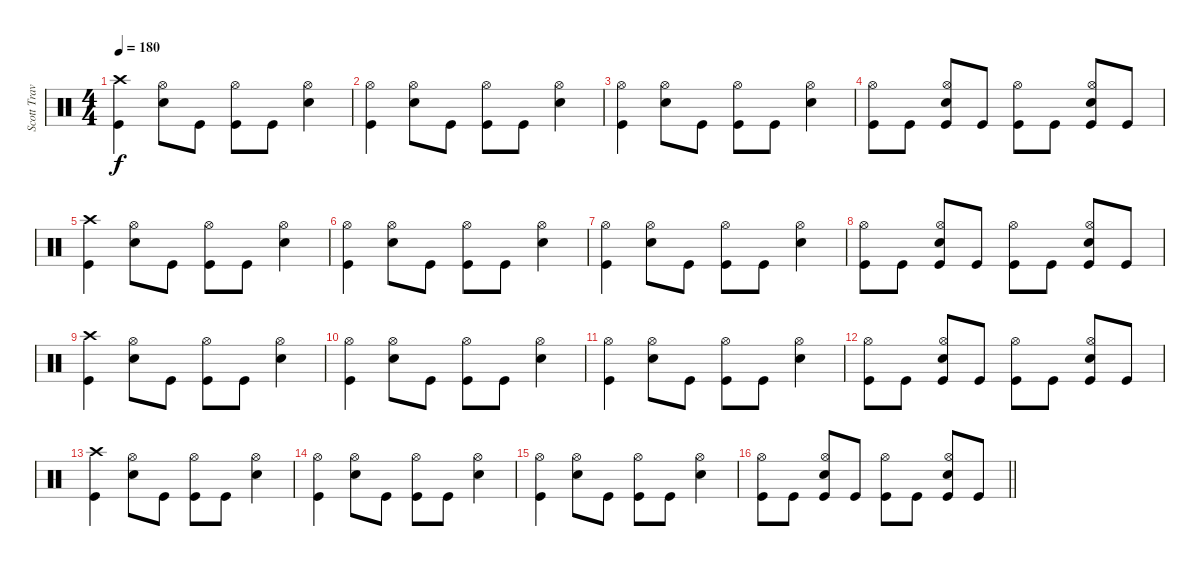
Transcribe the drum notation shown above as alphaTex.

\track ("Scott Travis" "Scott Trav") {instrument percussion}
\staff {score}
\articulation defaults
\ts (4 4)
\tempo 180
\clef neutral
\ks c
("Crash high (hit)" "Kick (hit)").4{dy f} ("Hi-Hat (open)" "Snare (hit) 2").8 "Kick (hit)".8 ("Hi-Hat (open)" "Kick (hit)").8 "Kick (hit)".8 ("Hi-Hat (open)" "Snare (hit) 2").4 |
("Hi-Hat (open)" "Kick (hit)").4 ("Hi-Hat (open)" "Snare (hit) 2").8 "Kick (hit)".8 ("Hi-Hat (open)" "Kick (hit)").8 "Kick (hit)".8 ("Hi-Hat (open)" "Snare (hit) 2").4 |
("Hi-Hat (open)" "Kick (hit)").4 ("Hi-Hat (open)" "Snare (hit) 2").8 "Kick (hit)".8 ("Hi-Hat (open)" "Kick (hit)").8 "Kick (hit)".8 ("Hi-Hat (open)" "Snare (hit) 2").4 |
("Hi-Hat (open)" "Kick (hit)").8 "Kick (hit)".8 ("Hi-Hat (open)" "Snare (hit) 2" "Kick (hit)").8 "Kick (hit)".8 ("Hi-Hat (open)" "Kick (hit)").8 "Kick (hit)".8 ("Hi-Hat (open)" "Snare (hit) 2" "Kick (hit)").8 "Kick (hit)".8 |
("Crash high (hit)" "Kick (hit)").4 ("Hi-Hat (open)" "Snare (hit) 2").8 "Kick (hit)".8 ("Hi-Hat (open)" "Kick (hit)").8 "Kick (hit)".8 ("Hi-Hat (open)" "Snare (hit) 2").4 |
("Hi-Hat (open)" "Kick (hit)").4 ("Hi-Hat (open)" "Snare (hit) 2").8 "Kick (hit)".8 ("Hi-Hat (open)" "Kick (hit)").8 "Kick (hit)".8 ("Hi-Hat (open)" "Snare (hit) 2").4 |
("Hi-Hat (open)" "Kick (hit)").4 ("Hi-Hat (open)" "Snare (hit) 2").8 "Kick (hit)".8 ("Hi-Hat (open)" "Kick (hit)").8 "Kick (hit)".8 ("Hi-Hat (open)" "Snare (hit) 2").4 |
("Hi-Hat (open)" "Kick (hit)").8 "Kick (hit)".8 ("Hi-Hat (open)" "Snare (hit) 2" "Kick (hit)").8 "Kick (hit)".8 ("Hi-Hat (open)" "Kick (hit)").8 "Kick (hit)".8 ("Hi-Hat (open)" "Snare (hit) 2" "Kick (hit)").8 "Kick (hit)".8 |
("Crash high (hit)" "Kick (hit)").4 ("Hi-Hat (open)" "Snare (hit) 2").8 "Kick (hit)".8 ("Hi-Hat (open)" "Kick (hit)").8 "Kick (hit)".8 ("Hi-Hat (open)" "Snare (hit) 2").4 |
("Hi-Hat (open)" "Kick (hit)").4 ("Hi-Hat (open)" "Snare (hit) 2").8 "Kick (hit)".8 ("Hi-Hat (open)" "Kick (hit)").8 "Kick (hit)".8 ("Hi-Hat (open)" "Snare (hit) 2").4 |
("Hi-Hat (open)" "Kick (hit)").4 ("Hi-Hat (open)" "Snare (hit) 2").8 "Kick (hit)".8 ("Hi-Hat (open)" "Kick (hit)").8 "Kick (hit)".8 ("Hi-Hat (open)" "Snare (hit) 2").4 |
("Hi-Hat (open)" "Kick (hit)").8 "Kick (hit)".8 ("Hi-Hat (open)" "Snare (hit) 2" "Kick (hit)").8 "Kick (hit)".8 ("Hi-Hat (open)" "Kick (hit)").8 "Kick (hit)".8 ("Hi-Hat (open)" "Snare (hit) 2" "Kick (hit)").8 "Kick (hit)".8 |
("Crash high (hit)" "Kick (hit)").4 ("Hi-Hat (open)" "Snare (hit) 2").8 "Kick (hit)".8 ("Hi-Hat (open)" "Kick (hit)").8 "Kick (hit)".8 ("Hi-Hat (open)" "Snare (hit) 2").4 |
("Hi-Hat (open)" "Kick (hit)").4 ("Hi-Hat (open)" "Snare (hit) 2").8 "Kick (hit)".8 ("Hi-Hat (open)" "Kick (hit)").8 "Kick (hit)".8 ("Hi-Hat (open)" "Snare (hit) 2").4 |
("Hi-Hat (open)" "Kick (hit)").4 ("Hi-Hat (open)" "Snare (hit) 2").8 "Kick (hit)".8 ("Hi-Hat (open)" "Kick (hit)").8 "Kick (hit)".8 ("Hi-Hat (open)" "Snare (hit) 2").4 |
\barLineRight lightlight
("Hi-Hat (open)" "Kick (hit)").8 "Kick (hit)".8 ("Hi-Hat (open)" "Snare (hit) 2" "Kick (hit)").8 "Kick (hit)".8 ("Hi-Hat (open)" "Kick (hit)").8 "Kick (hit)".8 ("Hi-Hat (open)" "Snare (hit) 2" "Kick (hit)").8 "Kick (hit)".8
